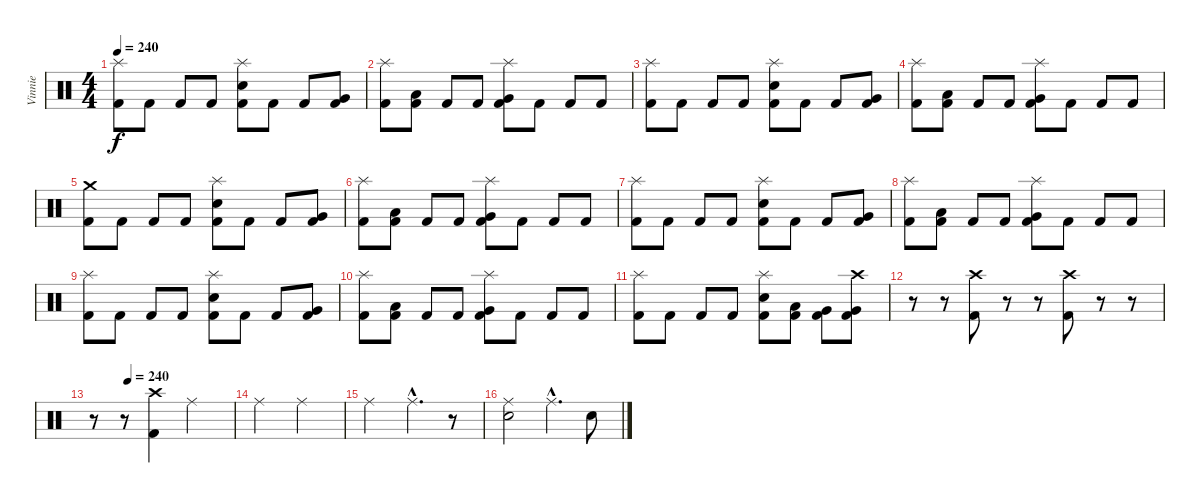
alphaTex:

\track ("Vinnie" "Vinnie") {instrument percussion}
\staff {score}
\articulation defaults
\ts (4 4)
\tempo 240
\clef neutral
\ks c
("Splash (hit)" "Kick (hit) 2").8{dy f} "Kick (hit) 2".8 "Kick (hit) 2".8 "Kick (hit) 2".8 ("Splash (hit)" "Electric Snare (hit)" "Kick (hit) 2").8 "Kick (hit) 2".8 "Kick (hit) 2".8 ("Very Low Tom (hit)" "Kick (hit) 2").8 |
("Splash (hit)" "Kick (hit) 2").8 ("Low Tom (hit)" "Kick (hit) 2").8 "Kick (hit) 2".8 "Kick (hit) 2".8 ("Splash (hit)" "Very Low Tom (hit)" "Kick (hit) 2").8 "Kick (hit) 2".8 "Kick (hit) 2".8 "Kick (hit) 2".8 |
("Splash (hit)" "Kick (hit) 2").8 "Kick (hit) 2".8 "Kick (hit) 2".8 "Kick (hit) 2".8 ("Splash (hit)" "Electric Snare (hit)" "Kick (hit) 2").8 "Kick (hit) 2".8 "Kick (hit) 2".8 ("Very Low Tom (hit)" "Kick (hit) 2").8 |
("Splash (hit)" "Kick (hit) 2").8 ("Low Tom (hit)" "Kick (hit) 2").8 "Kick (hit) 2".8 "Kick (hit) 2".8 ("Splash (hit)" "Very Low Tom (hit)" "Kick (hit) 2").8 "Kick (hit) 2".8 "Kick (hit) 2".8 "Kick (hit) 2".8 |
("Crash medium (hit)" "Kick (hit) 2").8 "Kick (hit) 2".8 "Kick (hit) 2".8 "Kick (hit) 2".8 ("Splash (hit)" "Electric Snare (hit)" "Kick (hit) 2").8 "Kick (hit) 2".8 "Kick (hit) 2".8 ("Very Low Tom (hit)" "Kick (hit) 2").8 |
("Splash (hit)" "Kick (hit) 2").8 ("Low Tom (hit)" "Kick (hit) 2").8 "Kick (hit) 2".8 "Kick (hit) 2".8 ("Splash (hit)" "Very Low Tom (hit)" "Kick (hit) 2").8 "Kick (hit) 2".8 "Kick (hit) 2".8 "Kick (hit) 2".8 |
("Splash (hit)" "Kick (hit) 2").8 "Kick (hit) 2".8 "Kick (hit) 2".8 "Kick (hit) 2".8 ("Splash (hit)" "Electric Snare (hit)" "Kick (hit) 2").8 "Kick (hit) 2".8 "Kick (hit) 2".8 ("Very Low Tom (hit)" "Kick (hit) 2").8 |
("Splash (hit)" "Kick (hit) 2").8 ("Low Tom (hit)" "Kick (hit) 2").8 "Kick (hit) 2".8 "Kick (hit) 2".8 ("Splash (hit)" "Very Low Tom (hit)" "Kick (hit) 2").8 "Kick (hit) 2".8 "Kick (hit) 2".8 "Kick (hit) 2".8 |
("Splash (hit)" "Kick (hit) 2").8 "Kick (hit) 2".8 "Kick (hit) 2".8 "Kick (hit) 2".8 ("Splash (hit)" "Electric Snare (hit)" "Kick (hit) 2").8 "Kick (hit) 2".8 "Kick (hit) 2".8 ("Very Low Tom (hit)" "Kick (hit) 2").8 |
("Splash (hit)" "Kick (hit) 2").8 ("Low Tom (hit)" "Kick (hit) 2").8 "Kick (hit) 2".8 "Kick (hit) 2".8 ("Splash (hit)" "Very Low Tom (hit)" "Kick (hit) 2").8 "Kick (hit) 2".8 "Kick (hit) 2".8 "Kick (hit) 2".8 |
("Splash (hit)" "Kick (hit) 2").8 "Kick (hit) 2".8 "Kick (hit) 2".8 "Kick (hit) 2".8 ("Splash (hit)" "Electric Snare (hit)" "Kick (hit) 2").8 ("Low Tom (hit)" "Kick (hit) 2").8 ("Very Low Tom (hit)" "Kick (hit) 2").8 ("Crash high (hit)" "Very Low Tom (hit)" "Kick (hit) 2").8 |
r.8 r.8 ("Crash high (hit)" "Kick (hit) 2").8 r.8 r.8 ("Crash high (hit)" "Kick (hit) 2").8 r.8 r.8 |
\tempo (240 0.25)
r.8 r.8 ("Crash high (hit)" "Kick (hit) 2").4 "Ride (middle)".2 |
"Ride (middle)".2 "Ride (middle)".2 |
"Ride (middle)".2 "Ride (middle)"{hac}.4{d} r.8 |
("Ride (middle)" "Electric Snare (hit)").2 "Ride (middle)"{hac}.4{d} "Electric Snare (hit)".8
